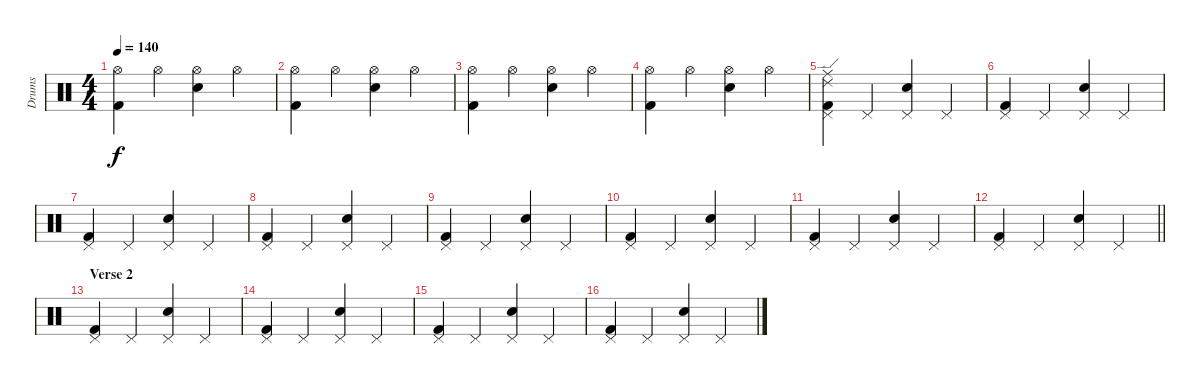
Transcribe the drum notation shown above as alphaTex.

\track ("Drums" "Drums") {instrument percussion}
\staff {score}
\articulation defaults
\ts (4 4)
\tempo 140
\clef neutral
\ks c
("Hi-Hat (open)" "Kick (hit) 2").4{dy f} "Hi-Hat (open)".4 ("Hi-Hat (open)" "Snare (hit) 2").4 "Hi-Hat (open)".4 |
("Hi-Hat (open)" "Kick (hit) 2").4 "Hi-Hat (open)".4 ("Hi-Hat (open)" "Snare (hit) 2").4 "Hi-Hat (open)".4 |
("Hi-Hat (open)" "Kick (hit) 2").4 "Hi-Hat (open)".4 ("Hi-Hat (open)" "Snare (hit) 2").4 "Hi-Hat (open)".4 |
("Hi-Hat (open)" "Kick (hit) 2").4 "Hi-Hat (open)".4 ("Hi-Hat (open)" "Snare (hit) 2").4 "Hi-Hat (open)".4 |
("Pedal Hi-Hat (hit)" "Kick (hit) 2" "Ride (edge) 2" "Ride (middle)").4 "Pedal Hi-Hat (hit)".4 ("Pedal Hi-Hat (hit)" "Snare (hit) 2").4 "Pedal Hi-Hat (hit)".4 |
("Pedal Hi-Hat (hit)" "Kick (hit) 2").4 "Pedal Hi-Hat (hit)".4 ("Pedal Hi-Hat (hit)" "Snare (hit) 2").4 "Pedal Hi-Hat (hit)".4 |
("Pedal Hi-Hat (hit)" "Kick (hit) 2").4 "Pedal Hi-Hat (hit)".4 ("Pedal Hi-Hat (hit)" "Snare (hit) 2").4 "Pedal Hi-Hat (hit)".4 |
("Pedal Hi-Hat (hit)" "Kick (hit) 2").4 "Pedal Hi-Hat (hit)".4 ("Pedal Hi-Hat (hit)" "Snare (hit) 2").4 "Pedal Hi-Hat (hit)".4 |
("Pedal Hi-Hat (hit)" "Kick (hit) 2").4 "Pedal Hi-Hat (hit)".4 ("Pedal Hi-Hat (hit)" "Snare (hit) 2").4 "Pedal Hi-Hat (hit)".4 |
("Pedal Hi-Hat (hit)" "Kick (hit) 2").4 "Pedal Hi-Hat (hit)".4 ("Pedal Hi-Hat (hit)" "Snare (hit) 2").4 "Pedal Hi-Hat (hit)".4 |
("Pedal Hi-Hat (hit)" "Kick (hit) 2").4 "Pedal Hi-Hat (hit)".4 ("Pedal Hi-Hat (hit)" "Snare (hit) 2").4 "Pedal Hi-Hat (hit)".4 |
\barLineRight lightlight
("Pedal Hi-Hat (hit)" "Kick (hit) 2").4 "Pedal Hi-Hat (hit)".4 ("Pedal Hi-Hat (hit)" "Snare (hit) 2").4 "Pedal Hi-Hat (hit)".4 |
\section ("" "Verse 2")
("Pedal Hi-Hat (hit)" "Kick (hit) 2").4 "Pedal Hi-Hat (hit)".4 ("Pedal Hi-Hat (hit)" "Snare (hit) 2").4 "Pedal Hi-Hat (hit)".4 |
("Pedal Hi-Hat (hit)" "Kick (hit) 2").4 "Pedal Hi-Hat (hit)".4 ("Pedal Hi-Hat (hit)" "Snare (hit) 2").4 "Pedal Hi-Hat (hit)".4 |
("Pedal Hi-Hat (hit)" "Kick (hit) 2").4 "Pedal Hi-Hat (hit)".4 ("Pedal Hi-Hat (hit)" "Snare (hit) 2").4 "Pedal Hi-Hat (hit)".4 |
("Pedal Hi-Hat (hit)" "Kick (hit) 2").4 "Pedal Hi-Hat (hit)".4 ("Pedal Hi-Hat (hit)" "Snare (hit) 2").4 "Pedal Hi-Hat (hit)".4
